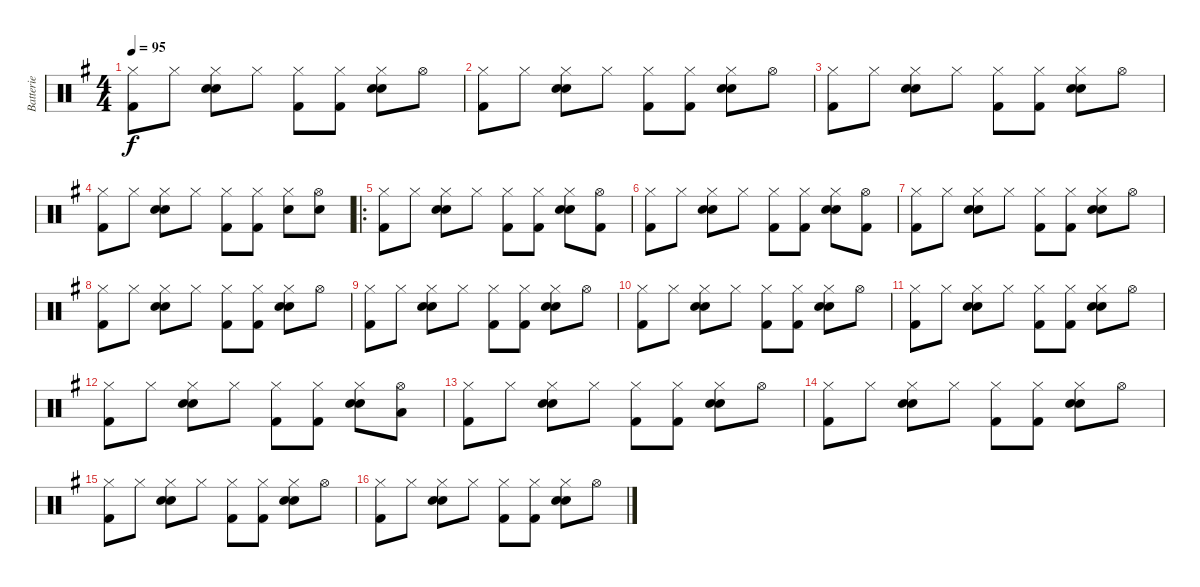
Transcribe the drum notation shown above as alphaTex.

\track ("Batterie" "Batterie") {instrument percussion}
\staff {score}
\articulation defaults
\ts (4 4)
\tempo 95
\clef neutral
\ks g
("Hi-Hat (closed)" "Kick (hit) 2").8{dy f} "Hi-Hat (closed)".8 ("Hi-Hat (closed)" "Hand Clap (hit)" "Snare (hit) 2").8 "Hi-Hat (closed)".8 ("Hi-Hat (closed)" "Kick (hit) 2").8 ("Hi-Hat (closed)" "Kick (hit) 2").8 ("Hi-Hat (closed)" "Hand Clap (hit)" "Snare (hit) 2").8 "Hi-Hat (open)".8 |
("Hi-Hat (closed)" "Kick (hit) 2").8 "Hi-Hat (closed)".8 ("Hi-Hat (closed)" "Hand Clap (hit)" "Snare (hit) 2").8 "Hi-Hat (closed)".8 ("Hi-Hat (closed)" "Kick (hit) 2").8 ("Hi-Hat (closed)" "Kick (hit) 2").8 ("Hi-Hat (closed)" "Hand Clap (hit)" "Snare (hit) 2").8 "Hi-Hat (open)".8 |
("Hi-Hat (closed)" "Kick (hit) 2").8 "Hi-Hat (closed)".8 ("Hi-Hat (closed)" "Hand Clap (hit)" "Snare (hit) 2").8 "Hi-Hat (closed)".8 ("Hi-Hat (closed)" "Kick (hit) 2").8 ("Hi-Hat (closed)" "Kick (hit) 2").8 ("Hi-Hat (closed)" "Hand Clap (hit)" "Snare (hit) 2").8 "Hi-Hat (open)".8 |
("Hi-Hat (closed)" "Kick (hit) 2").8 "Hi-Hat (closed)".8 ("Hi-Hat (closed)" "Hand Clap (hit)" "Snare (hit) 2").8 "Hi-Hat (closed)".8 ("Hi-Hat (closed)" "Kick (hit) 2").8 ("Hi-Hat (closed)" "Kick (hit) 2").8 ("Hi-Hat (closed)" "Snare (hit) 2").8 ("Hi-Hat (open)" "Snare (hit) 2").8 |
\ro
("Hi-Hat (closed)" "Kick (hit) 2").8 "Hi-Hat (closed)".8 ("Hi-Hat (closed)" "Hand Clap (hit)" "Snare (hit) 2").8 "Hi-Hat (closed)".8 ("Hi-Hat (closed)" "Kick (hit) 2").8 ("Hi-Hat (closed)" "Kick (hit) 2").8 ("Hi-Hat (closed)" "Hand Clap (hit)" "Snare (hit) 2").8 ("Hi-Hat (open)" "Kick (hit) 2").8 |
("Hi-Hat (closed)" "Kick (hit) 2").8 "Hi-Hat (closed)".8 ("Hi-Hat (closed)" "Hand Clap (hit)" "Snare (hit) 2").8 "Hi-Hat (closed)".8 ("Hi-Hat (closed)" "Kick (hit) 2").8 ("Hi-Hat (closed)" "Kick (hit) 2").8 ("Hi-Hat (closed)" "Hand Clap (hit)" "Snare (hit) 2").8 ("Hi-Hat (open)" "Kick (hit) 2").8 |
("Hi-Hat (closed)" "Kick (hit) 2").8 "Hi-Hat (closed)".8 ("Hi-Hat (closed)" "Hand Clap (hit)" "Snare (hit) 2").8 "Hi-Hat (closed)".8 ("Hi-Hat (closed)" "Kick (hit) 2").8 ("Hi-Hat (closed)" "Kick (hit) 2").8 ("Hi-Hat (closed)" "Hand Clap (hit)" "Snare (hit) 2").8 "Hi-Hat (open)".8 |
("Hi-Hat (closed)" "Kick (hit) 2").8 "Hi-Hat (closed)".8 ("Hi-Hat (closed)" "Hand Clap (hit)" "Snare (hit) 2").8 "Hi-Hat (closed)".8 ("Hi-Hat (closed)" "Kick (hit) 2").8 ("Hi-Hat (closed)" "Kick (hit) 2").8 ("Hi-Hat (closed)" "Hand Clap (hit)" "Snare (hit) 2").8 "Hi-Hat (open)".8 |
("Hi-Hat (closed)" "Kick (hit) 2").8 "Hi-Hat (closed)".8 ("Hi-Hat (closed)" "Hand Clap (hit)" "Snare (hit) 2").8 "Hi-Hat (closed)".8 ("Hi-Hat (closed)" "Kick (hit) 2").8 ("Hi-Hat (closed)" "Kick (hit) 2").8 ("Hi-Hat (closed)" "Hand Clap (hit)" "Snare (hit) 2").8 "Hi-Hat (open)".8 |
("Hi-Hat (closed)" "Kick (hit) 2").8 "Hi-Hat (closed)".8 ("Hi-Hat (closed)" "Hand Clap (hit)" "Snare (hit) 2").8 "Hi-Hat (closed)".8 ("Hi-Hat (closed)" "Kick (hit) 2").8 ("Hi-Hat (closed)" "Kick (hit) 2").8 ("Hi-Hat (closed)" "Hand Clap (hit)" "Snare (hit) 2").8 "Hi-Hat (open)".8 |
("Hi-Hat (closed)" "Kick (hit) 2").8 "Hi-Hat (closed)".8 ("Hi-Hat (closed)" "Hand Clap (hit)" "Snare (hit) 2").8 "Hi-Hat (closed)".8 ("Hi-Hat (closed)" "Kick (hit) 2").8 ("Hi-Hat (closed)" "Kick (hit) 2").8 ("Hi-Hat (closed)" "Hand Clap (hit)" "Snare (hit) 2").8 "Hi-Hat (open)".8 |
("Hi-Hat (closed)" "Kick (hit) 2").8 "Hi-Hat (closed)".8 ("Hi-Hat (closed)" "Hand Clap (hit)" "Snare (hit) 2").8 "Hi-Hat (closed)".8 ("Hi-Hat (closed)" "Kick (hit) 2").8 ("Hi-Hat (closed)" "Kick (hit) 2").8 ("Hi-Hat (closed)" "Hand Clap (hit)" "Snare (hit) 2").8 ("Hi-Hat (open)" "Low Tom (hit)").8 |
("Hi-Hat (closed)" "Kick (hit) 2").8 "Hi-Hat (closed)".8 ("Hi-Hat (closed)" "Hand Clap (hit)" "Snare (hit) 2").8 "Hi-Hat (closed)".8 ("Hi-Hat (closed)" "Kick (hit) 2").8 ("Hi-Hat (closed)" "Kick (hit) 2").8 ("Hi-Hat (closed)" "Hand Clap (hit)" "Snare (hit) 2").8 "Hi-Hat (open)".8 |
("Hi-Hat (closed)" "Kick (hit) 2").8 "Hi-Hat (closed)".8 ("Hi-Hat (closed)" "Hand Clap (hit)" "Snare (hit) 2").8 "Hi-Hat (closed)".8 ("Hi-Hat (closed)" "Kick (hit) 2").8 ("Hi-Hat (closed)" "Kick (hit) 2").8 ("Hi-Hat (closed)" "Hand Clap (hit)" "Snare (hit) 2").8 "Hi-Hat (open)".8 |
("Hi-Hat (closed)" "Kick (hit) 2").8 "Hi-Hat (closed)".8 ("Hi-Hat (closed)" "Hand Clap (hit)" "Snare (hit) 2").8 "Hi-Hat (closed)".8 ("Hi-Hat (closed)" "Kick (hit) 2").8 ("Hi-Hat (closed)" "Kick (hit) 2").8 ("Hi-Hat (closed)" "Hand Clap (hit)" "Snare (hit) 2").8 "Hi-Hat (open)".8 |
("Hi-Hat (closed)" "Kick (hit) 2").8 "Hi-Hat (closed)".8 ("Hi-Hat (closed)" "Hand Clap (hit)" "Snare (hit) 2").8 "Hi-Hat (closed)".8 ("Hi-Hat (closed)" "Kick (hit) 2").8 ("Hi-Hat (closed)" "Kick (hit) 2").8 ("Hi-Hat (closed)" "Hand Clap (hit)" "Snare (hit) 2").8 "Hi-Hat (open)".8
